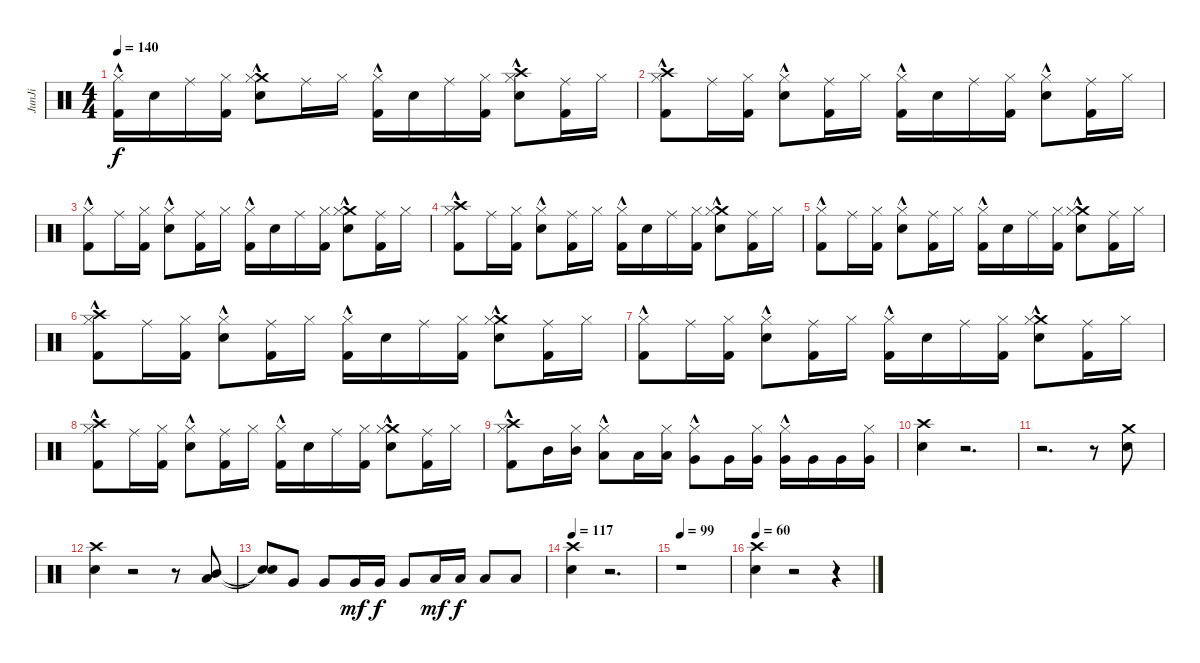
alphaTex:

\track ("JunJi" "JunJi") {instrument percussion}
\staff {score}
\articulation defaults
\ts (4 4)
\tempo 140
\clef neutral
\ks c
("Hi-Hat (closed)"{hac} "Kick (hit) 2").16{dy f} "Electric Snare (hit)".16 "Ride (middle)".16 ("Hi-Hat (closed)" "Kick (hit) 2").16 ("Electric Snare (hit)" "Crash medium (hit)" "Hi-Hat (closed)"{hac}).8 "Ride (middle)".16 "Hi-Hat (closed)".16 ("Hi-Hat (closed)"{hac} "Kick (hit) 2").16 "Electric Snare (hit)".16 "Ride (middle)".16 ("Kick (hit) 2" "Hi-Hat (closed)").16 ("Electric Snare (hit)" "Hi-Hat (closed)"{hac} "Crash high (hit)").8 ("Kick (hit) 2" "Ride (middle)").16 "Hi-Hat (closed)".16 |
("Hi-Hat (closed)"{hac} "Crash high (hit)" "Kick (hit) 2"{hac}).8 "Ride (middle)".16 ("Hi-Hat (closed)" "Kick (hit) 2").16 ("Electric Snare (hit)" "Hi-Hat (closed)"{hac}).8 ("Ride (middle)" "Kick (hit) 2").16 "Hi-Hat (closed)".16 ("Kick (hit) 2" "Hi-Hat (closed)"{hac}).16 "Electric Snare (hit)".16 "Ride (middle)".16 ("Kick (hit) 2" "Hi-Hat (closed)").16 ("Electric Snare (hit)" "Hi-Hat (closed)"{hac}).8 ("Ride (middle)" "Kick (hit) 2").16 "Hi-Hat (closed)".16 |
("Hi-Hat (closed)"{hac} "Kick (hit) 2"{hac}).8 "Ride (middle)".16 ("Kick (hit) 2" "Hi-Hat (closed)").16 ("Electric Snare (hit)" "Hi-Hat (closed)"{hac}).8 ("Kick (hit) 2" "Ride (middle)").16 "Hi-Hat (closed)".16 ("Hi-Hat (closed)"{hac} "Kick (hit) 2").16 "Electric Snare (hit)".16 "Ride (middle)".16 ("Kick (hit) 2" "Hi-Hat (closed)").16 ("Crash medium (hit)" "Hi-Hat (closed)"{hac} "Electric Snare (hit)").8 ("Kick (hit) 2" "Ride (middle)").16 "Hi-Hat (closed)".16 |
("Crash high (hit)" "Hi-Hat (closed)"{hac} "Kick (hit) 2"{hac}).8 "Ride (middle)".16 ("Hi-Hat (closed)" "Kick (hit) 2").16 ("Electric Snare (hit)" "Hi-Hat (closed)"{hac}).8 ("Ride (middle)" "Kick (hit) 2").16 "Hi-Hat (closed)".16 ("Kick (hit) 2" "Hi-Hat (closed)"{hac}).16 "Electric Snare (hit)".16 "Ride (middle)".16 ("Kick (hit) 2" "Hi-Hat (closed)").16 ("Crash medium (hit)" "Electric Snare (hit)" "Hi-Hat (closed)"{hac}).8 ("Ride (middle)" "Kick (hit) 2").16 "Hi-Hat (closed)".16 |
("Hi-Hat (closed)"{hac} "Kick (hit) 2"{hac}).8 "Ride (middle)".16 ("Kick (hit) 2" "Hi-Hat (closed)").16 ("Electric Snare (hit)" "Hi-Hat (closed)"{hac}).8 ("Kick (hit) 2" "Ride (middle)").16 "Hi-Hat (closed)".16 ("Hi-Hat (closed)"{hac} "Kick (hit) 2").16 "Electric Snare (hit)".16 "Ride (middle)".16 ("Kick (hit) 2" "Hi-Hat (closed)").16 ("Crash medium (hit)" "Hi-Hat (closed)"{hac} "Electric Snare (hit)").8 ("Kick (hit) 2" "Ride (middle)").16 "Hi-Hat (closed)".16 |
("Hi-Hat (closed)"{hac} "Crash high (hit)" "Kick (hit) 2"{hac}).8 "Ride (middle)".16 ("Hi-Hat (closed)" "Kick (hit) 2").16 ("Electric Snare (hit)" "Hi-Hat (closed)"{hac}).8 ("Ride (middle)" "Kick (hit) 2").16 "Hi-Hat (closed)".16 ("Kick (hit) 2" "Hi-Hat (closed)"{hac}).16 "Electric Snare (hit)".16 "Ride (middle)".16 ("Kick (hit) 2" "Hi-Hat (closed)").16 ("Crash medium (hit)" "Electric Snare (hit)" "Hi-Hat (closed)"{hac}).8 ("Ride (middle)" "Kick (hit) 2").16 "Hi-Hat (closed)".16 |
("Hi-Hat (closed)"{hac} "Kick (hit) 2"{hac}).8 "Ride (middle)".16 ("Kick (hit) 2" "Hi-Hat (closed)").16 ("Electric Snare (hit)" "Hi-Hat (closed)"{hac}).8 ("Kick (hit) 2" "Ride (middle)").16 "Hi-Hat (closed)".16 ("Hi-Hat (closed)"{hac} "Kick (hit) 2").16 "Electric Snare (hit)".16 "Ride (middle)".16 ("Kick (hit) 2" "Hi-Hat (closed)").16 ("Crash medium (hit)" "Hi-Hat (closed)"{hac} "Electric Snare (hit)").8 ("Kick (hit) 2" "Ride (middle)").16 "Hi-Hat (closed)".16 |
("Crash high (hit)" "Hi-Hat (closed)"{hac} "Kick (hit) 2"{hac}).8 "Ride (middle)".16 ("Kick (hit) 2" "Hi-Hat (closed)").16 ("Electric Snare (hit)" "Hi-Hat (closed)"{hac}).8 ("Kick (hit) 2" "Ride (middle)").16 "Hi-Hat (closed)".16 ("Hi-Hat (closed)"{hac} "Kick (hit) 2").16 "Electric Snare (hit)".16 "Ride (middle)".16 ("Kick (hit) 2" "Hi-Hat (closed)").16 ("Crash medium (hit)" "Hi-Hat (closed)"{hac} "Electric Snare (hit)").8 ("Kick (hit) 2" "Ride (middle)").16 "Hi-Hat (closed)".16 |
("Crash high (hit)" "Hi-Hat (closed)"{hac} "Kick (hit) 2").8 "Mid Tom (hit)".16 ("Mid Tom (hit)" "Hi-Hat (closed)").16 ("Low Tom (hit)" "Hi-Hat (closed)"{hac}).8 "Low Tom (hit)".16 ("Low Tom (hit)" "Hi-Hat (closed)").16 ("Very Low Tom (hit)" "Hi-Hat (closed)"{hac}).8 "Very Low Tom (hit)".16 ("Very Low Tom (hit)" "Hi-Hat (closed)").16 ("Very Low Tom (hit)" "Hi-Hat (closed)"{hac}).16 "Very Low Tom (hit)".16 "Very Low Tom (hit)".16 ("Very Low Tom (hit)" "Hi-Hat (closed)").16 |
("Crash high (hit)" "Electric Snare (hit)").4 r.2{d} |
r.2{d} r.8 ("Electric Snare (hit)" "Crash medium (hit)").8 |
("Crash high (hit)" "Electric Snare (hit)").4 r.2 r.8 ("Mid Tom (hit)" "Low Tom (hit)").8 |
("Snare (hit)"{t} "Snare (hit)"{t}).8 "Very Low Tom (hit)".8 "Very Low Tom (hit)".8 "Very Low Tom (hit)".16{dy mf} "Very Low Tom (hit)".16{dy f} "Very Low Tom (hit)".8 "Low Floor Tom (hit)".16{dy mf} "Low Floor Tom (hit)".16{dy f} "Low Floor Tom (hit)".8 "Low Floor Tom (hit)".8 |
\tempo 117
("Crash high (hit)" "Electric Snare (hit)").4 r.2{d} |
\tempo 99
r.1 |
\tempo 60
("Crash high (hit)" "Electric Snare (hit)").4 r.2 r.4
